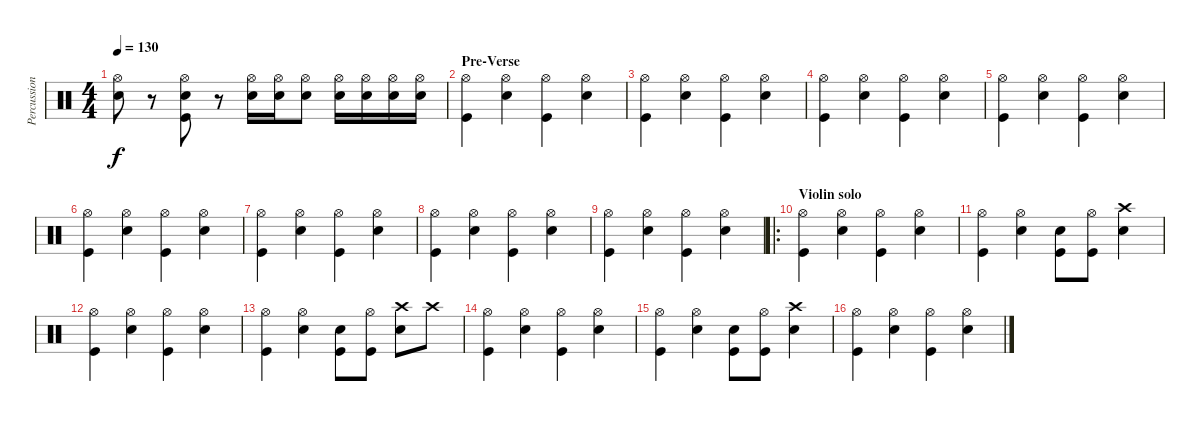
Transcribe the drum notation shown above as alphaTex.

\track ("Percussion" "Percussion") {instrument percussion}
\staff {score}
\articulation defaults
\ts (4 4)
\tempo 130
\clef neutral
\ks c
("Hi-Hat (open)" "Snare (hit) 2").8{dy f} r.8 ("Hi-Hat (open)" "Snare (hit) 2" "Kick (hit)").8 r.8 ("Hi-Hat (open)" "Snare (hit) 2").16 ("Hi-Hat (open)" "Snare (hit) 2").16 ("Hi-Hat (open)" "Snare (hit) 2").8 ("Hi-Hat (open)" "Snare (hit) 2").16 ("Hi-Hat (open)" "Snare (hit) 2").16 ("Hi-Hat (open)" "Snare (hit) 2").16 ("Hi-Hat (open)" "Snare (hit) 2").16 |
\section ("" "Pre-Verse")
("Hi-Hat (open)" "Kick (hit)").4 ("Hi-Hat (open)" "Snare (hit) 2").4 ("Hi-Hat (open)" "Kick (hit)").4 ("Hi-Hat (open)" "Snare (hit) 2").4 |
("Hi-Hat (open)" "Kick (hit)").4 ("Hi-Hat (open)" "Snare (hit) 2").4 ("Hi-Hat (open)" "Kick (hit)").4 ("Hi-Hat (open)" "Snare (hit) 2").4 |
("Hi-Hat (open)" "Kick (hit)").4 ("Hi-Hat (open)" "Snare (hit) 2").4 ("Hi-Hat (open)" "Kick (hit)").4 ("Hi-Hat (open)" "Snare (hit) 2").4 |
("Hi-Hat (open)" "Kick (hit)").4 ("Hi-Hat (open)" "Snare (hit) 2").4 ("Hi-Hat (open)" "Kick (hit)").4 ("Hi-Hat (open)" "Snare (hit) 2").4 |
("Hi-Hat (open)" "Kick (hit)").4 ("Hi-Hat (open)" "Snare (hit) 2").4 ("Hi-Hat (open)" "Kick (hit)").4 ("Hi-Hat (open)" "Snare (hit) 2").4 |
("Hi-Hat (open)" "Kick (hit)").4 ("Hi-Hat (open)" "Snare (hit) 2").4 ("Hi-Hat (open)" "Kick (hit)").4 ("Hi-Hat (open)" "Snare (hit) 2").4 |
("Hi-Hat (open)" "Kick (hit)").4 ("Hi-Hat (open)" "Snare (hit) 2").4 ("Hi-Hat (open)" "Kick (hit)").4 ("Hi-Hat (open)" "Snare (hit) 2").4 |
("Hi-Hat (open)" "Kick (hit)").4 ("Hi-Hat (open)" "Snare (hit) 2").4 ("Hi-Hat (open)" "Kick (hit)").4 ("Hi-Hat (open)" "Snare (hit) 2").4 |
\ro
\section ("" "Violin solo")
("Hi-Hat (open)" "Kick (hit)").4 ("Hi-Hat (open)" "Snare (hit) 2").4 ("Hi-Hat (open)" "Kick (hit)").4 ("Hi-Hat (open)" "Snare (hit) 2").4 |
("Hi-Hat (open)" "Kick (hit)").4 ("Hi-Hat (open)" "Snare (hit) 2").4 ("Snare (hit) 2" "Kick (hit)").8 ("Hi-Hat (open)" "Kick (hit)").8 ("Crash high (hit)" "Snare (hit) 2").4 |
("Hi-Hat (open)" "Kick (hit)").4 ("Hi-Hat (open)" "Snare (hit) 2").4 ("Hi-Hat (open)" "Kick (hit)").4 ("Hi-Hat (open)" "Snare (hit) 2").4 |
("Hi-Hat (open)" "Kick (hit)").4 ("Hi-Hat (open)" "Snare (hit) 2").4 ("Snare (hit) 2" "Kick (hit)").8 ("Hi-Hat (open)" "Kick (hit)").8 ("Crash high (hit)" "Snare (hit) 2").8 "Crash high (hit)".8 |
("Hi-Hat (open)" "Kick (hit)").4 ("Hi-Hat (open)" "Snare (hit) 2").4 ("Hi-Hat (open)" "Kick (hit)").4 ("Hi-Hat (open)" "Snare (hit) 2").4 |
("Hi-Hat (open)" "Kick (hit)").4 ("Hi-Hat (open)" "Snare (hit) 2").4 ("Snare (hit) 2" "Kick (hit)").8 ("Hi-Hat (open)" "Kick (hit)").8 ("Crash high (hit)" "Snare (hit) 2").4 |
("Hi-Hat (open)" "Kick (hit)").4 ("Hi-Hat (open)" "Snare (hit) 2").4 ("Hi-Hat (open)" "Kick (hit)").4 ("Hi-Hat (open)" "Snare (hit) 2").4
